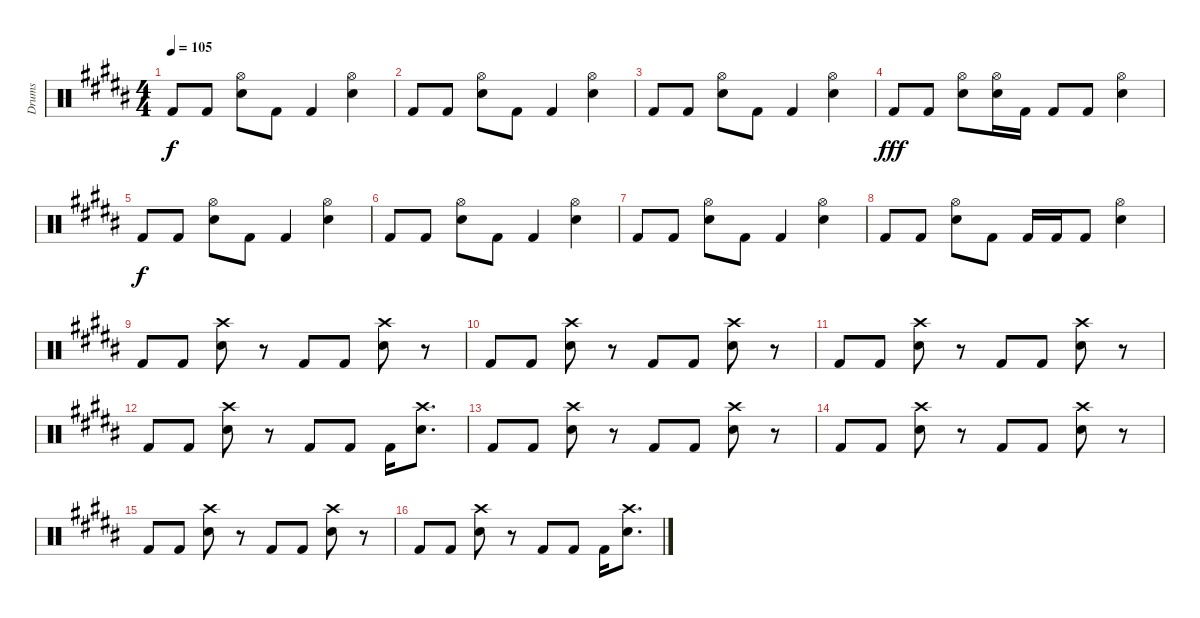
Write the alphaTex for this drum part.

\track ("Drums" "Drums") {instrument percussion}
\staff {score}
\articulation defaults
\ts (4 4)
\tempo 105
\clef neutral
\ks b "Kick (hit) 2".8{dy f} "Kick (hit) 2".8
("Hi-Hat (open)" "Electric Snare (hit)").8 "Kick (hit) 2".8 "Kick (hit) 2".4 ("Hi-Hat (open)" "Electric Snare (hit)").4 |
"Kick (hit) 2".8 "Kick (hit) 2".8 ("Hi-Hat (open)" "Electric Snare (hit)").8 "Kick (hit) 2".8 "Kick (hit) 2".4 ("Hi-Hat (open)" "Electric Snare (hit)").4 |
"Kick (hit) 2".8 "Kick (hit) 2".8 ("Hi-Hat (open)" "Electric Snare (hit)").8 "Kick (hit) 2".8 "Kick (hit) 2".4 ("Hi-Hat (open)" "Electric Snare (hit)").4 |
"Kick (hit) 2".8{dy fff} "Kick (hit) 2".8 ("Hi-Hat (open)" "Electric Snare (hit)").8 ("Hi-Hat (open)" "Electric Snare (hit)").16 "Kick (hit) 2".16 "Kick (hit) 2".8 "Kick (hit) 2".8 ("Hi-Hat (open)" "Electric Snare (hit)").4 |
"Kick (hit) 2".8{dy f} "Kick (hit) 2".8 ("Hi-Hat (open)" "Electric Snare (hit)").8 "Kick (hit) 2".8 "Kick (hit) 2".4 ("Hi-Hat (open)" "Electric Snare (hit)").4 |
"Kick (hit) 2".8 "Kick (hit) 2".8 ("Hi-Hat (open)" "Electric Snare (hit)").8 "Kick (hit) 2".8 "Kick (hit) 2".4 ("Hi-Hat (open)" "Electric Snare (hit)").4 |
"Kick (hit) 2".8 "Kick (hit) 2".8 ("Hi-Hat (open)" "Electric Snare (hit)").8 "Kick (hit) 2".8 "Kick (hit) 2".4 ("Hi-Hat (open)" "Electric Snare (hit)").4 |
"Kick (hit) 2".8 "Kick (hit) 2".8 ("Hi-Hat (open)" "Electric Snare (hit)").8 "Kick (hit) 2".8 "Kick (hit) 2".16 "Kick (hit) 2".16 "Kick (hit) 2".8 ("Hi-Hat (open)" "Electric Snare (hit)").4 |
"Kick (hit) 2".8 "Kick (hit) 2".8 ("Crash high (hit)" "Electric Snare (hit)").8 r.8 "Kick (hit) 2".8 "Kick (hit) 2".8 ("Crash high (hit)" "Electric Snare (hit)").8 r.8 |
"Kick (hit) 2".8 "Kick (hit) 2".8 ("Crash high (hit)" "Electric Snare (hit)").8 r.8 "Kick (hit) 2".8 "Kick (hit) 2".8 ("Crash high (hit)" "Electric Snare (hit)").8 r.8 |
"Kick (hit) 2".8 "Kick (hit) 2".8 ("Crash high (hit)" "Electric Snare (hit)").8 r.8 "Kick (hit) 2".8 "Kick (hit) 2".8 ("Crash high (hit)" "Electric Snare (hit)").8 r.8 |
"Kick (hit) 2".8 "Kick (hit) 2".8 ("Crash high (hit)" "Electric Snare (hit)").8 r.8 "Kick (hit) 2".8 "Kick (hit) 2".8 "Kick (hit) 2".16 ("Crash high (hit)" "Electric Snare (hit)").8{d} |
"Kick (hit) 2".8 "Kick (hit) 2".8 ("Crash high (hit)" "Electric Snare (hit)").8 r.8 "Kick (hit) 2".8 "Kick (hit) 2".8 ("Crash high (hit)" "Electric Snare (hit)").8 r.8 |
"Kick (hit) 2".8 "Kick (hit) 2".8 ("Crash high (hit)" "Electric Snare (hit)").8 r.8 "Kick (hit) 2".8 "Kick (hit) 2".8 ("Crash high (hit)" "Electric Snare (hit)").8 r.8 |
"Kick (hit) 2".8 "Kick (hit) 2".8 ("Crash high (hit)" "Electric Snare (hit)").8 r.8 "Kick (hit) 2".8 "Kick (hit) 2".8 ("Crash high (hit)" "Electric Snare (hit)").8 r.8 |
"Kick (hit) 2".8 "Kick (hit) 2".8 ("Crash high (hit)" "Electric Snare (hit)").8 r.8 "Kick (hit) 2".8 "Kick (hit) 2".8 "Kick (hit) 2".16 ("Crash high (hit)" "Electric Snare (hit)").8{d}
